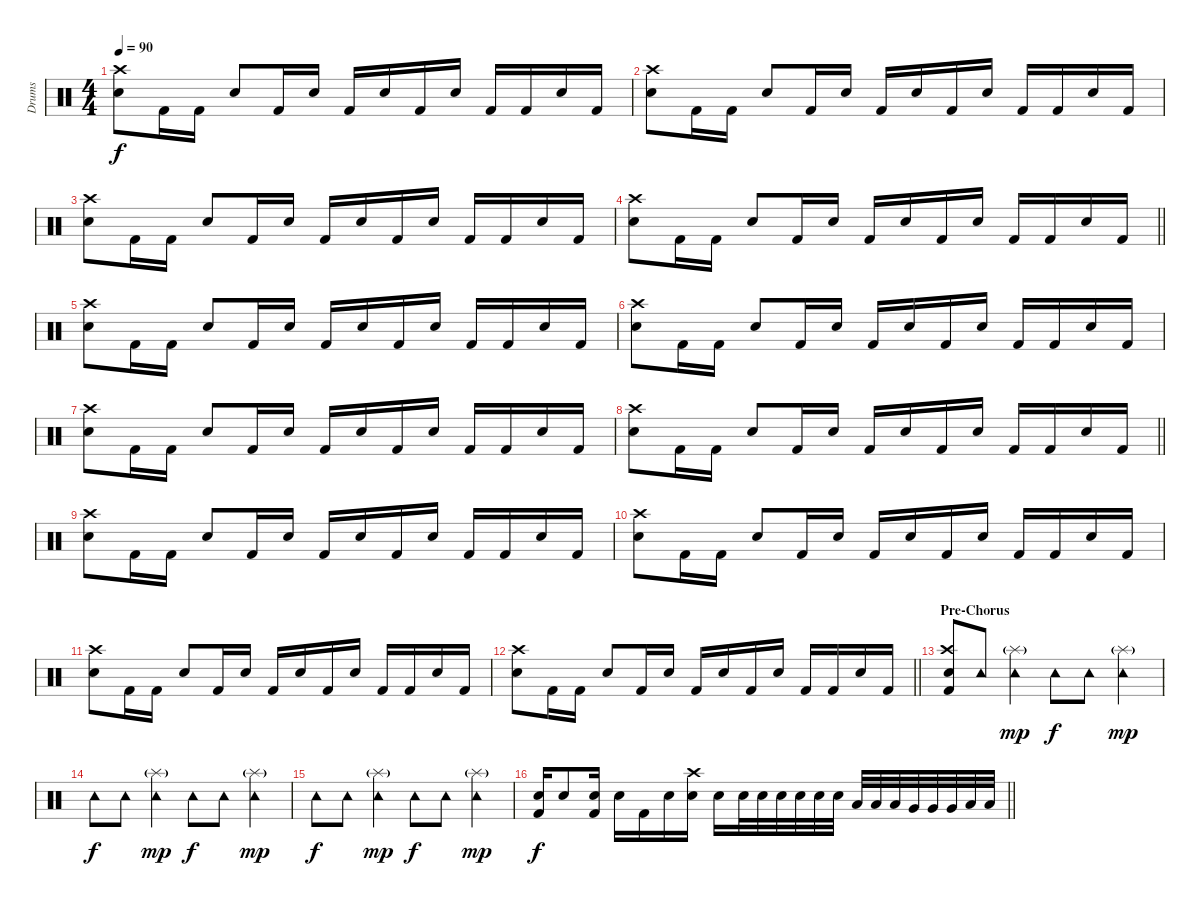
\track ("Drums" "Drums") {instrument percussion}
\staff {score}
\articulation defaults
\ts (4 4)
\tempo 90
\clef neutral
\ks c
("Electric Snare (hit)" "Crash high (hit)").8{dy f} "Kick (hit) 2".16 "Kick (hit) 2".16 "Electric Snare (hit)".8 "Kick (hit) 2".16 "Electric Snare (hit)".16 "Kick (hit) 2".16 "Electric Snare (hit)".16 "Kick (hit) 2".16 "Electric Snare (hit)".16 "Kick (hit) 2".16 "Kick (hit) 2".16 "Electric Snare (hit)".16 "Kick (hit) 2".16 |
("Electric Snare (hit)" "Crash high (hit)").8 "Kick (hit) 2".16 "Kick (hit) 2".16 "Electric Snare (hit)".8 "Kick (hit) 2".16 "Electric Snare (hit)".16 "Kick (hit) 2".16 "Electric Snare (hit)".16 "Kick (hit) 2".16 "Electric Snare (hit)".16 "Kick (hit) 2".16 "Kick (hit) 2".16 "Electric Snare (hit)".16 "Kick (hit) 2".16 |
("Electric Snare (hit)" "Crash high (hit)").8 "Kick (hit) 2".16 "Kick (hit) 2".16 "Electric Snare (hit)".8 "Kick (hit) 2".16 "Electric Snare (hit)".16 "Kick (hit) 2".16 "Electric Snare (hit)".16 "Kick (hit) 2".16 "Electric Snare (hit)".16 "Kick (hit) 2".16 "Kick (hit) 2".16 "Electric Snare (hit)".16 "Kick (hit) 2".16 |
\barLineRight lightlight
("Electric Snare (hit)" "Crash high (hit)").8 "Kick (hit) 2".16 "Kick (hit) 2".16 "Electric Snare (hit)".8 "Kick (hit) 2".16 "Electric Snare (hit)".16 "Kick (hit) 2".16 "Electric Snare (hit)".16 "Kick (hit) 2".16 "Electric Snare (hit)".16 "Kick (hit) 2".16 "Kick (hit) 2".16 "Electric Snare (hit)".16 "Kick (hit) 2".16 |
("Electric Snare (hit)" "Crash high (hit)").8 "Kick (hit) 2".16 "Kick (hit) 2".16 "Electric Snare (hit)".8 "Kick (hit) 2".16 "Electric Snare (hit)".16 "Kick (hit) 2".16 "Electric Snare (hit)".16 "Kick (hit) 2".16 "Electric Snare (hit)".16 "Kick (hit) 2".16 "Kick (hit) 2".16 "Electric Snare (hit)".16 "Kick (hit) 2".16 |
("Electric Snare (hit)" "Crash high (hit)").8 "Kick (hit) 2".16 "Kick (hit) 2".16 "Electric Snare (hit)".8 "Kick (hit) 2".16 "Electric Snare (hit)".16 "Kick (hit) 2".16 "Electric Snare (hit)".16 "Kick (hit) 2".16 "Electric Snare (hit)".16 "Kick (hit) 2".16 "Kick (hit) 2".16 "Electric Snare (hit)".16 "Kick (hit) 2".16 |
("Electric Snare (hit)" "Crash high (hit)").8 "Kick (hit) 2".16 "Kick (hit) 2".16 "Electric Snare (hit)".8 "Kick (hit) 2".16 "Electric Snare (hit)".16 "Kick (hit) 2".16 "Electric Snare (hit)".16 "Kick (hit) 2".16 "Electric Snare (hit)".16 "Kick (hit) 2".16 "Kick (hit) 2".16 "Electric Snare (hit)".16 "Kick (hit) 2".16 |
\barLineRight lightlight
("Electric Snare (hit)" "Crash high (hit)").8 "Kick (hit) 2".16 "Kick (hit) 2".16 "Electric Snare (hit)".8 "Kick (hit) 2".16 "Electric Snare (hit)".16 "Kick (hit) 2".16 "Electric Snare (hit)".16 "Kick (hit) 2".16 "Electric Snare (hit)".16 "Kick (hit) 2".16 "Kick (hit) 2".16 "Electric Snare (hit)".16 "Kick (hit) 2".16 |
("Electric Snare (hit)" "Crash high (hit)").8 "Kick (hit) 2".16 "Kick (hit) 2".16 "Electric Snare (hit)".8 "Kick (hit) 2".16 "Electric Snare (hit)".16 "Kick (hit) 2".16 "Electric Snare (hit)".16 "Kick (hit) 2".16 "Electric Snare (hit)".16 "Kick (hit) 2".16 "Kick (hit) 2".16 "Electric Snare (hit)".16 "Kick (hit) 2".16 |
("Electric Snare (hit)" "Crash high (hit)").8 "Kick (hit) 2".16 "Kick (hit) 2".16 "Electric Snare (hit)".8 "Kick (hit) 2".16 "Electric Snare (hit)".16 "Kick (hit) 2".16 "Electric Snare (hit)".16 "Kick (hit) 2".16 "Electric Snare (hit)".16 "Kick (hit) 2".16 "Kick (hit) 2".16 "Electric Snare (hit)".16 "Kick (hit) 2".16 |
("Electric Snare (hit)" "Crash high (hit)").8 "Kick (hit) 2".16 "Kick (hit) 2".16 "Electric Snare (hit)".8 "Kick (hit) 2".16 "Electric Snare (hit)".16 "Kick (hit) 2".16 "Electric Snare (hit)".16 "Kick (hit) 2".16 "Electric Snare (hit)".16 "Kick (hit) 2".16 "Kick (hit) 2".16 "Electric Snare (hit)".16 "Kick (hit) 2".16 |
\barLineRight lightlight
("Electric Snare (hit)" "Crash high (hit)").8 "Kick (hit) 2".16 "Kick (hit) 2".16 "Electric Snare (hit)".8 "Kick (hit) 2".16 "Electric Snare (hit)".16 "Kick (hit) 2".16 "Electric Snare (hit)".16 "Kick (hit) 2".16 "Electric Snare (hit)".16 "Kick (hit) 2".16 "Kick (hit) 2".16 "Electric Snare (hit)".16 "Kick (hit) 2".16 |
\section ("" "Pre-Chorus")
("Kick (hit) 2" "Electric Snare (hit)" "Crash high (hit)").8 "Tambourine (hit)".8 ("Tambourine (hit)" "Splash (hit)"{g}).4{dy mp} "Tambourine (hit)".8{dy f} "Tambourine (hit)".8 ("Tambourine (hit)" "Splash (hit)"{g}).4{dy mp} |
"Tambourine (hit)".8{dy f} "Tambourine (hit)".8 ("Tambourine (hit)" "Splash (hit)"{g}).4{dy mp} "Tambourine (hit)".8{dy f} "Tambourine (hit)".8 ("Tambourine (hit)" "Splash (hit)"{g}).4{dy mp} |
"Tambourine (hit)".8{dy f} "Tambourine (hit)".8 ("Tambourine (hit)" "Splash (hit)"{g}).4{dy mp} "Tambourine (hit)".8{dy f} "Tambourine (hit)".8 ("Tambourine (hit)" "Splash (hit)"{g}).4{dy mp} |
\barLineRight lightlight
("Kick (hit) 2" "Snare (hit) 2").16{dy f} "Snare (hit) 2".8 ("Kick (hit) 2" "Snare (hit) 2").16 "Snare (hit) 2".16 "Kick (hit) 2".16 "Snare (hit) 2".16 ("Snare (hit) 2" "Crash high (hit)").16 "Snare (hit) 2".16 "Snare (hit) 2".32 "Snare (hit) 2".32 "Snare (hit) 2".32 "Snare (hit) 2".32 "Snare (hit) 2".32 "Snare (hit) 2".32 "Low Tom (hit)".32 "Low Tom (hit)".32 "Low Tom (hit)".32 "Very Low Tom (hit)".32 "Very Low Tom (hit)".32 "Very Low Tom (hit)".32 "Low Floor Tom (hit)".32 "Low Floor Tom (hit)".32
